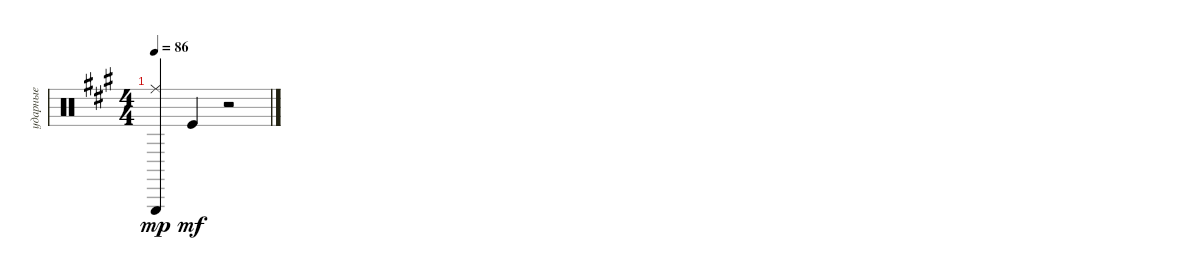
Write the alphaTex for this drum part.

\track ("ударные" "ударные") {instrument percussion}
\staff {score}
\articulation defaults
\ts (4 4)
\tempo 86
\clef neutral
\ks f#minor
("Triangle (hit)"{t} "Ride (middle)"{t}).4{dy mp} "Kick (hit)".4{dy mf} r.2
